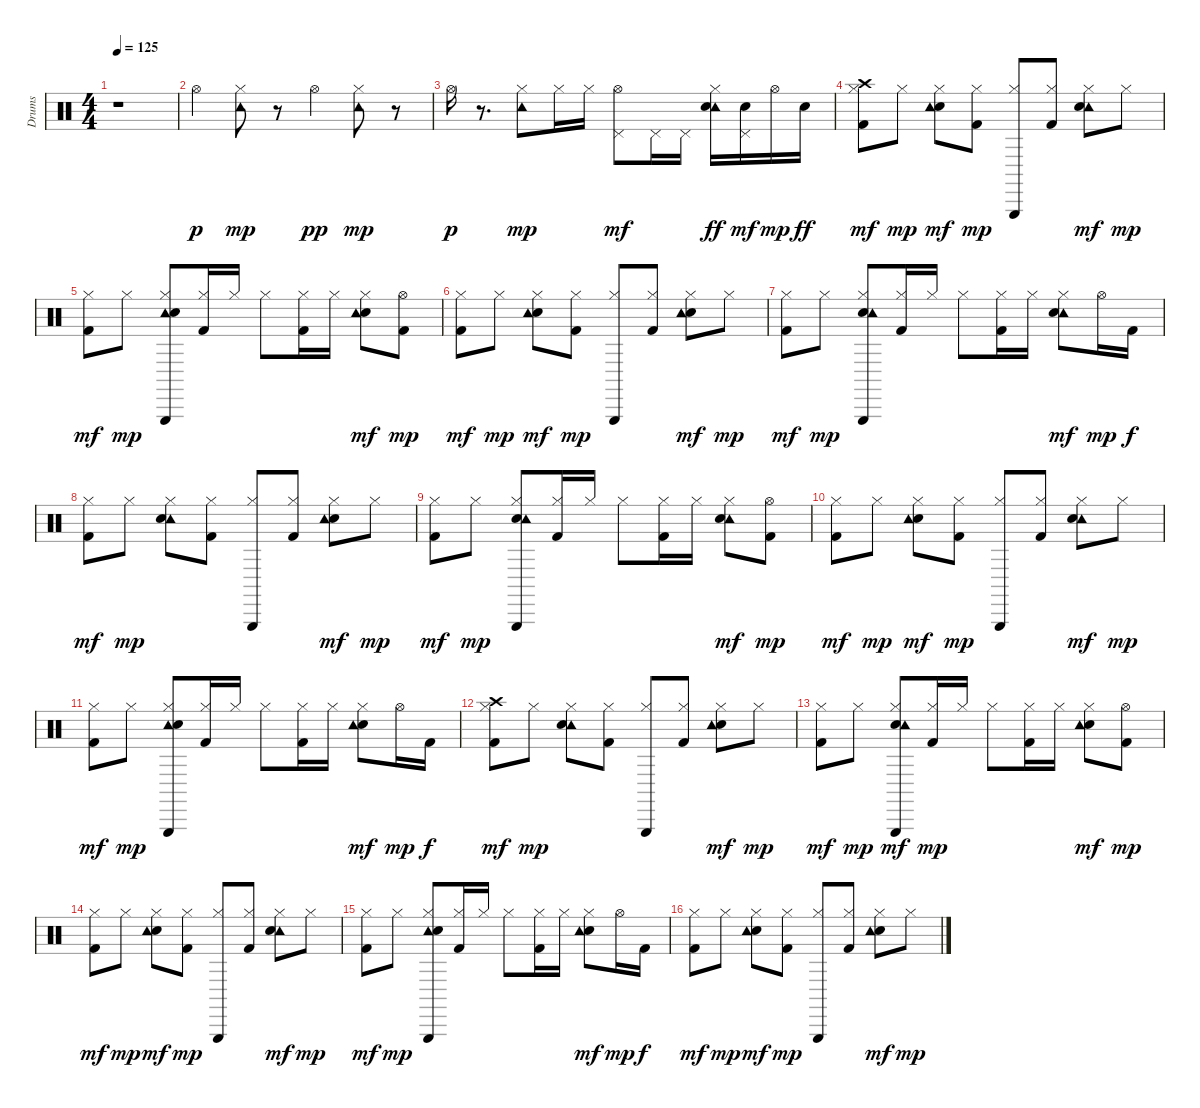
\track ("Drums" "Drums") {instrument percussion}
\staff {score}
\articulation defaults
\ts (4 4)
\tempo 125
\clef neutral
\ks c
r.1{dy p} |
"Hi-Hat (open)".4 ("Tambourine (hit)" "Hi-Hat (closed)").8{dy mp} r.8 "Hi-Hat (open)".4{dy pp} ("Hi-Hat (closed)" "Tambourine (hit)").8{dy mp} r.8 |
"Hi-Hat (open)".16{dy p} r.8{d} ("Hi-Hat (closed)" "Tambourine (hit)").8{dy mp} "Hi-Hat (closed)".16 "Hi-Hat (closed)".16 ("Hi-Hat (open)" "Pedal Hi-Hat (hit)").8{dy mf} "Pedal Hi-Hat (hit)".16 "Pedal Hi-Hat (hit)".16 ("Tambourine (hit)" "Hi-Hat (closed)" "Electric Snare (hit)").16{dy ff} ("Electric Snare (hit)" "Pedal Hi-Hat (hit)").16{dy mf} "Hi-Hat (open)".16{dy mp} "Electric Snare (hit)".16{dy ff} |
("Crash high (hit)" "Hi-Hat (closed)" "Kick (hit) 2").8{dy mf} "Hi-Hat (closed)".8{dy mp} ("Hi-Hat (closed)" "Electric Snare (hit)" "Tambourine (hit)").8{dy mf} ("Hi-Hat (closed)" "Kick (hit) 2").8{dy mp} ("Triangle (hit)" "Hi-Hat (closed)").8 ("Kick (hit) 2" "Hi-Hat (closed)").8 ("Tambourine (hit)" "Electric Snare (hit)" "Hi-Hat (closed)").8{dy mf} "Hi-Hat (closed)".8{dy mp} |
("Hi-Hat (closed)" "Kick (hit) 2").8{dy mf} "Hi-Hat (closed)".8{dy mp} ("Triangle (hit)" "Tambourine (hit)" "Electric Snare (hit)" "Hi-Hat (closed)").8 ("Hi-Hat (closed)" "Kick (hit) 2").16 "Hi-Hat (closed)".16 "Hi-Hat (closed)".8 ("Kick (hit) 2" "Hi-Hat (closed)").16 "Hi-Hat (closed)".16 ("Hi-Hat (closed)" "Electric Snare (hit)" "Tambourine (hit)").8{dy mf} ("Kick (hit) 2" "Hi-Hat (open)").8{dy mp} |
("Kick (hit) 2" "Hi-Hat (closed)").8{dy mf} "Hi-Hat (closed)".8{dy mp} ("Hi-Hat (closed)" "Electric Snare (hit)" "Tambourine (hit)").8{dy mf} ("Kick (hit) 2" "Hi-Hat (closed)").8{dy mp} ("Hi-Hat (closed)" "Triangle (hit)").8 ("Kick (hit) 2" "Hi-Hat (closed)").8 ("Hi-Hat (closed)" "Electric Snare (hit)" "Tambourine (hit)").8{dy mf} "Hi-Hat (closed)".8{dy mp} |
("Kick (hit) 2" "Hi-Hat (closed)").8{dy mf} "Hi-Hat (closed)".8{dy mp} ("Hi-Hat (closed)" "Electric Snare (hit)" "Tambourine (hit)" "Triangle (hit)").8 ("Kick (hit) 2" "Hi-Hat (closed)").16 "Hi-Hat (closed)".16 "Hi-Hat (closed)".8 ("Hi-Hat (closed)" "Kick (hit) 2").16 "Hi-Hat (closed)".16 ("Tambourine (hit)" "Electric Snare (hit)" "Hi-Hat (closed)").8{dy mf} "Hi-Hat (open)".16{dy mp} "Kick (hit) 2".16{dy f} |
("Kick (hit) 2" "Hi-Hat (closed)").8{dy mf} "Hi-Hat (closed)".8{dy mp} ("Tambourine (hit)" "Electric Snare (hit)" "Hi-Hat (closed)").8 ("Kick (hit) 2" "Hi-Hat (closed)").8 ("Triangle (hit)" "Hi-Hat (closed)").8 ("Hi-Hat (closed)" "Kick (hit) 2").8 ("Hi-Hat (closed)" "Electric Snare (hit)" "Tambourine (hit)").8{dy mf} "Hi-Hat (closed)".8{dy mp} |
("Hi-Hat (closed)" "Kick (hit) 2").8{dy mf} "Hi-Hat (closed)".8{dy mp} ("Hi-Hat (closed)" "Electric Snare (hit)" "Tambourine (hit)" "Triangle (hit)").8 ("Hi-Hat (closed)" "Kick (hit) 2").16 "Hi-Hat (closed)".16 "Hi-Hat (closed)".8 ("Hi-Hat (closed)" "Kick (hit) 2").16 "Hi-Hat (closed)".16 ("Tambourine (hit)" "Electric Snare (hit)" "Hi-Hat (closed)").8{dy mf} ("Kick (hit) 2" "Hi-Hat (open)").8{dy mp} |
("Hi-Hat (closed)" "Kick (hit) 2").8{dy mf} "Hi-Hat (closed)".8{dy mp} ("Hi-Hat (closed)" "Electric Snare (hit)" "Tambourine (hit)").8{dy mf} ("Hi-Hat (closed)" "Kick (hit) 2").8{dy mp} ("Triangle (hit)" "Hi-Hat (closed)").8 ("Kick (hit) 2" "Hi-Hat (closed)").8 ("Tambourine (hit)" "Electric Snare (hit)" "Hi-Hat (closed)").8{dy mf} "Hi-Hat (closed)".8{dy mp} |
("Hi-Hat (closed)" "Kick (hit) 2").8{dy mf} "Hi-Hat (closed)".8{dy mp} ("Triangle (hit)" "Tambourine (hit)" "Electric Snare (hit)" "Hi-Hat (closed)").8 ("Hi-Hat (closed)" "Kick (hit) 2").16 "Hi-Hat (closed)".16 "Hi-Hat (closed)".8 ("Kick (hit) 2" "Hi-Hat (closed)").16 "Hi-Hat (closed)".16 ("Hi-Hat (closed)" "Electric Snare (hit)" "Tambourine (hit)").8{dy mf} "Hi-Hat (open)".16{dy mp} "Kick (hit) 2".16{dy f} |
("Crash high (hit)" "Hi-Hat (closed)" "Kick (hit) 2").8{dy mf} "Hi-Hat (closed)".8{dy mp} ("Tambourine (hit)" "Electric Snare (hit)" "Hi-Hat (closed)").8 ("Kick (hit) 2" "Hi-Hat (closed)").8 ("Triangle (hit)" "Hi-Hat (closed)").8 ("Hi-Hat (closed)" "Kick (hit) 2").8 ("Hi-Hat (closed)" "Electric Snare (hit)" "Tambourine (hit)").8{dy mf} "Hi-Hat (closed)".8{dy mp} |
("Hi-Hat (closed)" "Kick (hit) 2").8{dy mf} "Hi-Hat (closed)".8{dy mp} ("Triangle (hit)" "Hi-Hat (closed)" "Electric Snare (hit)" "Tambourine (hit)").8{dy mf} ("Hi-Hat (closed)" "Kick (hit) 2").16{dy mp} "Hi-Hat (closed)".16 "Hi-Hat (closed)".8 ("Hi-Hat (closed)" "Kick (hit) 2").16 "Hi-Hat (closed)".16 ("Hi-Hat (closed)" "Electric Snare (hit)" "Tambourine (hit)").8{dy mf} ("Kick (hit) 2" "Hi-Hat (open)").8{dy mp} |
("Hi-Hat (closed)" "Kick (hit) 2").8{dy mf} "Hi-Hat (closed)".8{dy mp} ("Hi-Hat (closed)" "Electric Snare (hit)" "Tambourine (hit)").8{dy mf} ("Hi-Hat (closed)" "Kick (hit) 2").8{dy mp} ("Triangle (hit)" "Hi-Hat (closed)").8 ("Kick (hit) 2" "Hi-Hat (closed)").8 ("Tambourine (hit)" "Electric Snare (hit)" "Hi-Hat (closed)").8{dy mf} "Hi-Hat (closed)".8{dy mp} |
("Hi-Hat (closed)" "Kick (hit) 2").8{dy mf} "Hi-Hat (closed)".8{dy mp} ("Triangle (hit)" "Tambourine (hit)" "Electric Snare (hit)" "Hi-Hat (closed)").8 ("Hi-Hat (closed)" "Kick (hit) 2").16 "Hi-Hat (closed)".16 "Hi-Hat (closed)".8 ("Kick (hit) 2" "Hi-Hat (closed)").16 "Hi-Hat (closed)".16 ("Hi-Hat (closed)" "Electric Snare (hit)" "Tambourine (hit)").8{dy mf} "Hi-Hat (open)".16{dy mp} "Kick (hit) 2".16{dy f} |
("Kick (hit) 2" "Hi-Hat (closed)").8{dy mf} "Hi-Hat (closed)".8{dy mp} ("Hi-Hat (closed)" "Electric Snare (hit)" "Tambourine (hit)").8{dy mf} ("Kick (hit) 2" "Hi-Hat (closed)").8{dy mp} ("Triangle (hit)" "Hi-Hat (closed)").8 ("Kick (hit) 2" "Hi-Hat (closed)").8 ("Hi-Hat (closed)" "Electric Snare (hit)" "Tambourine (hit)").8{dy mf} "Hi-Hat (closed)".8{dy mp}
